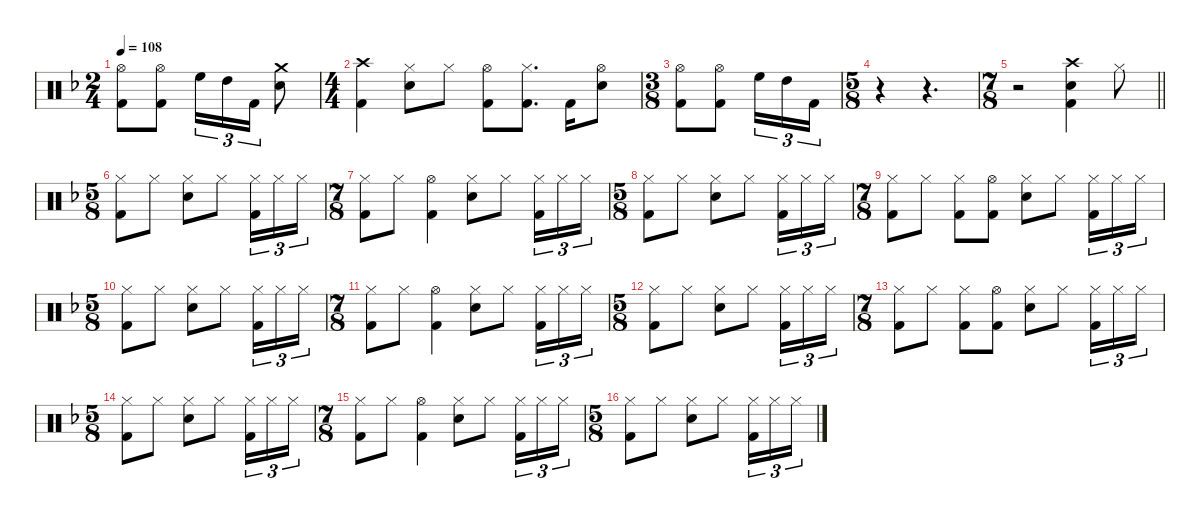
\defaultSystemsLayout 4
\hideDynamics
\bracketExtendMode nobrackets
\singleTrackTrackNamePolicy hidden
\multiTrackTrackNamePolicy hidden
\firstSystemTrackNameMode fullname
\firstSystemTrackNameOrientation horizontal
\otherSystemsTrackNameOrientation horizontal
\track ("Danny Carey" "drm.") {defaultSystemsLayout 4 instrument percussion}
\staff {score}
\articulation defaults
\ts (2 4)
\beaming (8 2 2 2 2)
\tempo 108
\clef neutral
\ks dminor
("Hi-Hat (open)"{acc forcenatural} "Kick (hit) 2"{acc forcenatural}).8{dy f beam Down} ("Hi-Hat (open)"{acc forcenatural} "Kick (hit) 2"{acc forcenatural}).8{beam Down} "High Floor Tom (hit)"{acc forcenatural}.16{tu (3 2) beam Down} "High Tom (hit)"{acc forcenatural}.16{tu (3 2) beam Down} "Kick (hit) 2"{acc forcenatural}.16{tu (3 2) beam Down} ("Crash medium (hit)"{acc forcenatural} "Snare (hit) 2"{acc forcenatural}).8{beam Down} |
\ts (4 4)
\beaming (8 2 2 2 2)
("Crash high (hit)"{acc forcenatural} "Kick (hit) 2"{acc forcenatural}).4{beam Down} ("Hi-Hat (closed)"{acc forcenatural} "Snare (hit) 2"{acc forcenatural}).8{beam Down} "Hi-Hat (closed)"{acc forcenatural}.8{beam Down} ("Hi-Hat (open)"{acc forcenatural} "Kick (hit) 2"{acc forcenatural}).8{beam Down} ("Hi-Hat (closed)"{acc forcenatural} "Kick (hit) 2"{acc forcenatural}).8{d beam Down} "Kick (hit) 2"{acc forcenatural}.16{beam Down} ("Hi-Hat (open)"{acc forcenatural} "Snare (hit) 2"{acc forcenatural}).8{beam Down} |
\ts (3 8)
\beaming (8 2 2 2 2)
("Hi-Hat (open)"{acc forcenatural} "Kick (hit) 2"{acc forcenatural}).8{beam Down} ("Hi-Hat (open)"{acc forcenatural} "Kick (hit) 2"{acc forcenatural}).8{beam Down} "High Floor Tom (hit)"{acc forcenatural}.16{tu (3 2) beam Down} "High Tom (hit)"{acc forcenatural}.16{tu (3 2) beam Down} "Kick (hit) 2"{acc forcenatural}.16{tu (3 2) beam Down} |
\ts (5 8)
\beaming (8 2 2 2 2)
r.4{beam Down} r.4{d beam Down} |
\ts (7 8)
\beaming (8 2 2 2 2)
\barLineRight lightlight
r.2{beam Down} ("Crash high (hit)"{acc forcenatural} "Snare (hit) 2"{acc forcenatural} "Kick (hit) 2"{acc forcenatural}).4{beam Down} "Hi-Hat (closed)"{acc forcenatural}.8{beam Down} |
\ts (5 8)
\beaming (8 2 2 2 2)
("Hi-Hat (closed)"{acc forcenatural} "Kick (hit) 2"{acc forcenatural}).8{beam Down} "Hi-Hat (closed)"{acc forcenatural}.8{beam Down} ("Hi-Hat (closed)"{acc forcenatural} "Snare (hit) 2"{acc forcenatural}).8{beam Down} "Hi-Hat (closed)"{acc forcenatural}.8{beam Down} ("Hi-Hat (closed)"{acc forcenatural} "Kick (hit) 2"{acc forcenatural}).16{tu (3 2) beam Down} "Hi-Hat (closed)"{acc forcenatural}.16{tu (3 2) beam Down} "Hi-Hat (closed)"{acc forcenatural}.16{tu (3 2) beam Down} |
\ts (7 8)
\beaming (8 2 2 2 2)
("Hi-Hat (closed)"{acc forcenatural} "Kick (hit) 2"{acc forcenatural}).8{beam Down} "Hi-Hat (closed)"{acc forcenatural}.8{beam Down} ("Hi-Hat (open)"{acc forcenatural} "Kick (hit) 2"{acc forcenatural}).4{beam Down} ("Hi-Hat (closed)"{acc forcenatural} "Snare (hit) 2"{acc forcenatural}).8{beam Down} "Hi-Hat (closed)"{acc forcenatural}.8{beam Down} ("Hi-Hat (closed)"{acc forcenatural} "Kick (hit) 2"{acc forcenatural}).16{tu (3 2) beam Down} "Hi-Hat (closed)"{acc forcenatural}.16{tu (3 2) beam Down} "Hi-Hat (closed)"{acc forcenatural}.16{tu (3 2) beam Down} |
\ts (5 8)
\beaming (8 2 2 2 2)
("Hi-Hat (closed)"{acc forcenatural} "Kick (hit) 2"{acc forcenatural}).8{beam Down} "Hi-Hat (closed)"{acc forcenatural}.8{beam Down} ("Hi-Hat (closed)"{acc forcenatural} "Snare (hit) 2"{acc forcenatural}).8{beam Down} "Hi-Hat (closed)"{acc forcenatural}.8{beam Down} ("Hi-Hat (closed)"{acc forcenatural} "Kick (hit) 2"{acc forcenatural}).16{tu (3 2) beam Down} "Hi-Hat (closed)"{acc forcenatural}.16{tu (3 2) beam Down} "Hi-Hat (closed)"{acc forcenatural}.16{tu (3 2) beam Down} |
\ts (7 8)
\beaming (8 2 2 2 2)
("Hi-Hat (closed)"{acc forcenatural} "Kick (hit) 2"{acc forcenatural}).8{beam Down} "Hi-Hat (closed)"{acc forcenatural}.8{beam Down} ("Hi-Hat (closed)"{acc forcenatural} "Kick (hit) 2"{acc forcenatural}).8{beam Down} ("Hi-Hat (open)"{acc forcenatural} "Kick (hit) 2"{acc forcenatural}).8{beam Down} ("Hi-Hat (closed)"{acc forcenatural} "Snare (hit) 2"{acc forcenatural}).8{beam Down} "Hi-Hat (closed)"{acc forcenatural}.8{beam Down} ("Hi-Hat (closed)"{acc forcenatural} "Kick (hit) 2"{acc forcenatural}).16{tu (3 2) beam Down} "Hi-Hat (closed)"{acc forcenatural}.16{tu (3 2) beam Down} "Hi-Hat (closed)"{acc forcenatural}.16{tu (3 2) beam Down} |
\ts (5 8)
\beaming (8 2 2 2 2)
("Hi-Hat (closed)"{acc forcenatural} "Kick (hit) 2"{acc forcenatural}).8{beam Down} "Hi-Hat (closed)"{acc forcenatural}.8{beam Down} ("Hi-Hat (closed)"{acc forcenatural} "Snare (hit) 2"{acc forcenatural}).8{beam Down} "Hi-Hat (closed)"{acc forcenatural}.8{beam Down} ("Hi-Hat (closed)"{acc forcenatural} "Kick (hit) 2"{acc forcenatural}).16{tu (3 2) beam Down} "Hi-Hat (closed)"{acc forcenatural}.16{tu (3 2) beam Down} "Hi-Hat (closed)"{acc forcenatural}.16{tu (3 2) beam Down} |
\ts (7 8)
\beaming (8 2 2 2 2)
("Hi-Hat (closed)"{acc forcenatural} "Kick (hit) 2"{acc forcenatural}).8{beam Down} "Hi-Hat (closed)"{acc forcenatural}.8{beam Down} ("Hi-Hat (open)"{acc forcenatural} "Kick (hit) 2"{acc forcenatural}).4{beam Down} ("Hi-Hat (closed)"{acc forcenatural} "Snare (hit) 2"{acc forcenatural}).8{beam Down} "Hi-Hat (closed)"{acc forcenatural}.8{beam Down} ("Hi-Hat (closed)"{acc forcenatural} "Kick (hit) 2"{acc forcenatural}).16{tu (3 2) beam Down} "Hi-Hat (closed)"{acc forcenatural}.16{tu (3 2) beam Down} "Hi-Hat (closed)"{acc forcenatural}.16{tu (3 2) beam Down} |
\ts (5 8)
\beaming (8 2 2 2 2)
("Hi-Hat (closed)"{acc forcenatural} "Kick (hit) 2"{acc forcenatural}).8{beam Down} "Hi-Hat (closed)"{acc forcenatural}.8{beam Down} ("Hi-Hat (closed)"{acc forcenatural} "Snare (hit) 2"{acc forcenatural}).8{beam Down} "Hi-Hat (closed)"{acc forcenatural}.8{beam Down} ("Hi-Hat (closed)"{acc forcenatural} "Kick (hit) 2"{acc forcenatural}).16{tu (3 2) beam Down} "Hi-Hat (closed)"{acc forcenatural}.16{tu (3 2) beam Down} "Hi-Hat (closed)"{acc forcenatural}.16{tu (3 2) beam Down} |
\ts (7 8)
\beaming (8 2 2 2 2)
("Hi-Hat (closed)"{acc forcenatural} "Kick (hit) 2"{acc forcenatural}).8{beam Down} "Hi-Hat (closed)"{acc forcenatural}.8{beam Down} ("Hi-Hat (closed)"{acc forcenatural} "Kick (hit) 2"{acc forcenatural}).8{beam Down} ("Hi-Hat (open)"{acc forcenatural} "Kick (hit) 2"{acc forcenatural}).8{beam Down} ("Hi-Hat (closed)"{acc forcenatural} "Snare (hit) 2"{acc forcenatural}).8{beam Down} "Hi-Hat (closed)"{acc forcenatural}.8{beam Down} ("Hi-Hat (closed)"{acc forcenatural} "Kick (hit) 2"{acc forcenatural}).16{tu (3 2) beam Down} "Hi-Hat (closed)"{acc forcenatural}.16{tu (3 2) beam Down} "Hi-Hat (closed)"{acc forcenatural}.16{tu (3 2) beam Down} |
\ts (5 8)
\beaming (8 2 2 2 2)
("Hi-Hat (closed)"{acc forcenatural} "Kick (hit) 2"{acc forcenatural}).8{beam Down} "Hi-Hat (closed)"{acc forcenatural}.8{beam Down} ("Hi-Hat (closed)"{acc forcenatural} "Snare (hit) 2"{acc forcenatural}).8{beam Down} "Hi-Hat (closed)"{acc forcenatural}.8{beam Down} ("Hi-Hat (closed)"{acc forcenatural} "Kick (hit) 2"{acc forcenatural}).16{tu (3 2) beam Down} "Hi-Hat (closed)"{acc forcenatural}.16{tu (3 2) beam Down} "Hi-Hat (closed)"{acc forcenatural}.16{tu (3 2) beam Down} |
\ts (7 8)
\beaming (8 2 2 2 2)
("Hi-Hat (closed)"{acc forcenatural} "Kick (hit) 2"{acc forcenatural}).8{beam Down} "Hi-Hat (closed)"{acc forcenatural}.8{beam Down} ("Hi-Hat (open)"{acc forcenatural} "Kick (hit) 2"{acc forcenatural}).4{beam Down} ("Hi-Hat (closed)"{acc forcenatural} "Snare (hit) 2"{acc forcenatural}).8{beam Down} "Hi-Hat (closed)"{acc forcenatural}.8{beam Down} ("Hi-Hat (closed)"{acc forcenatural} "Kick (hit) 2"{acc forcenatural}).16{tu (3 2) beam Down} "Hi-Hat (closed)"{acc forcenatural}.16{tu (3 2) beam Down} "Hi-Hat (closed)"{acc forcenatural}.16{tu (3 2) beam Down} |
\ts (5 8)
\beaming (8 2 2 2 2)
("Hi-Hat (closed)"{acc forcenatural} "Kick (hit) 2"{acc forcenatural}).8{beam Down} "Hi-Hat (closed)"{acc forcenatural}.8{beam Down} ("Hi-Hat (closed)"{acc forcenatural} "Snare (hit) 2"{acc forcenatural}).8{beam Down} "Hi-Hat (closed)"{acc forcenatural}.8{beam Down} ("Hi-Hat (closed)"{acc forcenatural} "Kick (hit) 2"{acc forcenatural}).16{tu (3 2) beam Down} "Hi-Hat (closed)"{acc forcenatural}.16{tu (3 2) beam Down} "Hi-Hat (closed)"{acc forcenatural}.16{tu (3 2) beam Down}
